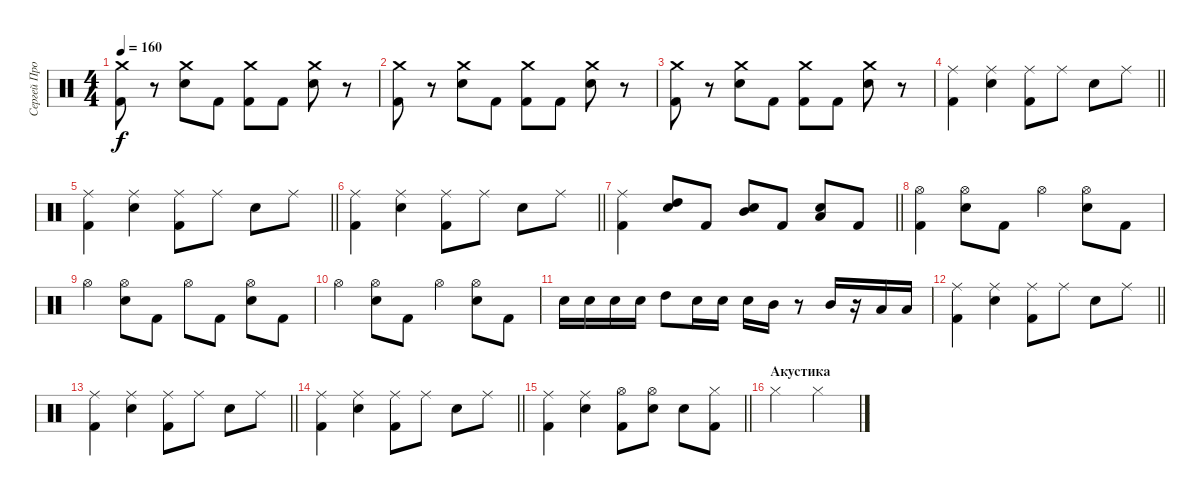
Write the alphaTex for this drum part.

\track ("Сергей Прокофьев" "Сергей Про") {instrument percussion}
\staff {score}
\articulation defaults
\ts (4 4)
\tempo 160
\clef neutral
\ks c
("Crash medium (hit)" "Kick (hit) 2").8{dy f} r.8 ("Crash medium (hit)" "Snare (hit) 2").8 "Kick (hit) 2".8 ("Crash medium (hit)" "Kick (hit) 2").8 "Kick (hit) 2".8 ("Crash medium (hit)" "Snare (hit) 2").8 r.8 |
("Crash medium (hit)" "Kick (hit) 2").8 r.8 ("Crash medium (hit)" "Snare (hit) 2").8 "Kick (hit) 2".8 ("Crash medium (hit)" "Kick (hit) 2").8 "Kick (hit) 2".8 ("Crash medium (hit)" "Snare (hit) 2").8 r.8 |
("Crash medium (hit)" "Kick (hit) 2").8 r.8 ("Crash medium (hit)" "Snare (hit) 2").8 "Kick (hit) 2".8 ("Crash medium (hit)" "Kick (hit) 2").8 "Kick (hit) 2".8 ("Crash medium (hit)" "Snare (hit) 2").8 r.8 |
\barLineRight lightlight
("Ride (middle)" "Kick (hit) 2").4 ("Ride (middle)" "Snare (hit) 2").4 ("Ride (middle)" "Kick (hit) 2").8 "Ride (middle)".8 "Snare (hit) 2".8 "Ride (middle)".8 |
\barLineRight lightlight
("Ride (middle)" "Kick (hit) 2").4 ("Ride (middle)" "Snare (hit) 2").4 ("Ride (middle)" "Kick (hit) 2").8 "Ride (middle)".8 "Snare (hit) 2".8 "Ride (middle)".8 |
\barLineRight lightlight
("Ride (middle)" "Kick (hit) 2").4 ("Ride (middle)" "Snare (hit) 2").4 ("Ride (middle)" "Kick (hit) 2").8 "Ride (middle)".8 "Snare (hit) 2".8 "Ride (middle)".8 |
\barLineRight lightlight
("Ride (middle)" "Kick (hit) 2").4 ("High Tom (hit)" "Snare (hit) 2").8 "Kick (hit) 2".8 ("Mid Tom (hit)" "Snare (hit) 2").8 "Kick (hit) 2".8 ("Low Tom (hit)" "Snare (hit) 2").8 "Kick (hit) 2".8 |
("Hi-Hat (open)" "Kick (hit) 2").4 ("Hi-Hat (open)" "Snare (hit) 2").8 "Kick (hit) 2".8 "Hi-Hat (open)".4 ("Hi-Hat (open)" "Snare (hit) 2").8 "Kick (hit) 2".8 |
"Hi-Hat (open)".4 ("Hi-Hat (open)" "Snare (hit) 2").8 "Kick (hit) 2".8 "Hi-Hat (open)".8 "Kick (hit) 2".8 ("Hi-Hat (open)" "Snare (hit) 2").8 "Kick (hit) 2".8 |
"Hi-Hat (open)".4 ("Hi-Hat (open)" "Snare (hit) 2").8 "Kick (hit) 2".8 "Hi-Hat (open)".4 ("Hi-Hat (open)" "Snare (hit) 2").8 "Kick (hit) 2".8 |
"Snare (hit) 2".16 "Snare (hit) 2".16 "Snare (hit) 2".16 "Snare (hit) 2".16 "High Tom (hit)".8 "Snare (hit) 2".16 "Snare (hit) 2".16 "Snare (hit) 2".16 "Mid Tom (hit)".16 r.8 "Mid Tom (hit)".16 r.16 "Low Tom (hit)".16 "Low Tom (hit)".16 |
\barLineRight lightlight
("Ride (middle)" "Kick (hit) 2").4 ("Ride (middle)" "Snare (hit) 2").4 ("Ride (middle)" "Kick (hit) 2").8 "Ride (middle)".8 "Snare (hit) 2".8 "Ride (middle)".8 |
\barLineRight lightlight
("Ride (middle)" "Kick (hit) 2").4 ("Ride (middle)" "Snare (hit) 2").4 ("Ride (middle)" "Kick (hit) 2").8 "Ride (middle)".8 "Snare (hit) 2".8 "Ride (middle)".8 |
\barLineRight lightlight
("Ride (middle)" "Kick (hit) 2").4 ("Ride (middle)" "Snare (hit) 2").4 ("Ride (middle)" "Kick (hit) 2").8 "Ride (middle)".8 "Snare (hit) 2".8 "Ride (middle)".8 |
\barLineRight lightlight
("Ride (middle)" "Kick (hit) 2").4 ("Ride (middle)" "Snare (hit) 2").4 ("Hi-Hat (open)" "Kick (hit) 2").8 ("Hi-Hat (open)" "Snare (hit) 2").8 "Snare (hit) 2".8 ("Hi-Hat (closed)" "Kick (hit) 2").8 |
\section ("" "Акустика")
"Hi-Hat (closed)".2 "Hi-Hat (closed)".2
